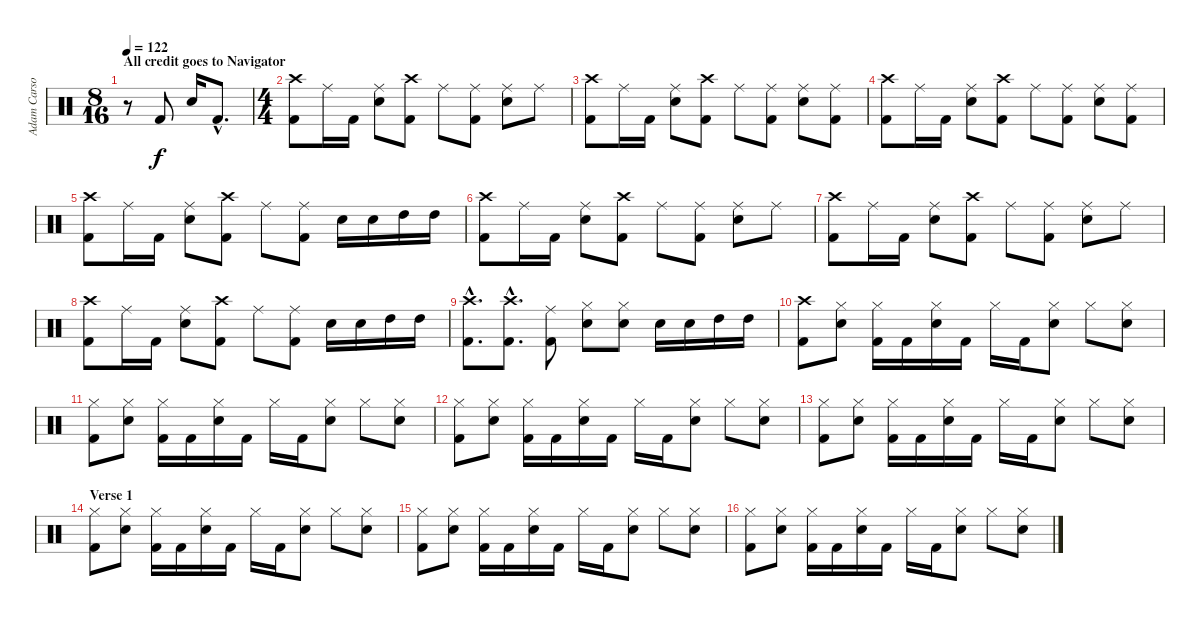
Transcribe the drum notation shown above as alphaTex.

\track ("Adam Carson" "Adam Carso") {instrument percussion}
\staff {score}
\articulation defaults
\ts (8 16)
\section ("" "All credit goes to Navigator")
\tempo 122
\clef neutral
\ks c
r.8{dy f} "Kick (hit) 2".8 "Electric Snare (hit)".16 "Kick (hit) 2"{hac}.8{d} |
\ts (4 4)
("Crash high (hit)" "Kick (hit) 2").8 "Ride (middle)".16 "Kick (hit) 2".16 ("Ride (middle)" "Electric Snare (hit)").8 ("Crash high (hit)" "Kick (hit) 2").8 "Ride (middle)".8 ("Ride (middle)" "Kick (hit) 2").8 ("Ride (middle)" "Electric Snare (hit)").8 "Ride (middle)".8 |
("Crash high (hit)" "Kick (hit) 2").8 "Ride (middle)".16 "Kick (hit) 2".16 ("Ride (middle)" "Electric Snare (hit)").8 ("Crash high (hit)" "Kick (hit) 2").8 "Ride (middle)".8 ("Ride (middle)" "Kick (hit) 2").8 ("Ride (middle)" "Electric Snare (hit)").8 ("Ride (middle)" "Kick (hit) 2").8 |
("Crash high (hit)" "Kick (hit) 2").8 "Ride (middle)".16 "Kick (hit) 2".16 ("Ride (middle)" "Electric Snare (hit)").8 ("Crash high (hit)" "Kick (hit) 2").8 "Ride (middle)".8 ("Ride (middle)" "Kick (hit) 2").8 ("Ride (middle)" "Electric Snare (hit)").8 ("Ride (middle)" "Kick (hit) 2").8 |
("Crash high (hit)" "Kick (hit) 2").8 "Ride (middle)".16 "Kick (hit) 2".16 ("Ride (middle)" "Electric Snare (hit)").8 ("Crash high (hit)" "Kick (hit) 2").8 "Ride (middle)".8 ("Ride (middle)" "Kick (hit) 2").8 "Electric Snare (hit)".16 "Electric Snare (hit)".16 "High Tom (hit)".16 "High Tom (hit)".16 |
("Crash high (hit)" "Kick (hit) 2").8 "Ride (middle)".16 "Kick (hit) 2".16 ("Ride (middle)" "Electric Snare (hit)").8 ("Crash high (hit)" "Kick (hit) 2").8 "Ride (middle)".8 ("Ride (middle)" "Kick (hit) 2").8 ("Ride (middle)" "Electric Snare (hit)").8 "Ride (middle)".8 |
("Crash high (hit)" "Kick (hit) 2").8 "Ride (middle)".16 "Kick (hit) 2".16 ("Ride (middle)" "Electric Snare (hit)").8 ("Crash high (hit)" "Kick (hit) 2").8 "Ride (middle)".8 ("Ride (middle)" "Kick (hit) 2").8 ("Ride (middle)" "Electric Snare (hit)").8 "Ride (middle)".8 |
("Crash high (hit)" "Kick (hit) 2").8 "Ride (middle)".16 "Kick (hit) 2".16 ("Ride (middle)" "Electric Snare (hit)").8 ("Crash high (hit)" "Kick (hit) 2").8 "Ride (middle)".8 ("Ride (middle)" "Kick (hit) 2").8 "Electric Snare (hit)".16 "Electric Snare (hit)".16 "High Tom (hit)".16 "High Tom (hit)".16 |
("Crash high (hit)"{hac} "Kick (hit) 2"{hac}).8{d} ("Crash high (hit)"{hac} "Kick (hit) 2"{hac}).8{d} ("Ride (middle)" "Kick (hit) 2").8 ("Hi-Hat (closed)" "Electric Snare (hit)").8 ("Hi-Hat (closed)" "Electric Snare (hit)").8 "Electric Snare (hit)".16 "Electric Snare (hit)".16 "High Tom (hit)".16 "High Tom (hit)".16 |
("Crash high (hit)" "Kick (hit) 2").8 ("Hi-Hat (closed)" "Electric Snare (hit)").8 ("Hi-Hat (closed)" "Kick (hit) 2").16 "Kick (hit) 2".16 ("Hi-Hat (closed)" "Electric Snare (hit)").16 "Kick (hit) 2".16 "Hi-Hat (closed)".16 "Kick (hit) 2".16 ("Hi-Hat (closed)" "Electric Snare (hit)").8 "Hi-Hat (closed)".8 ("Hi-Hat (closed)" "Electric Snare (hit)").8 |
("Hi-Hat (closed)" "Kick (hit) 2").8 ("Hi-Hat (closed)" "Electric Snare (hit)").8 ("Hi-Hat (closed)" "Kick (hit) 2").16 "Kick (hit) 2".16 ("Hi-Hat (closed)" "Electric Snare (hit)").16 "Kick (hit) 2".16 "Hi-Hat (closed)".16 "Kick (hit) 2".16 ("Hi-Hat (closed)" "Electric Snare (hit)").8 "Hi-Hat (closed)".8 ("Hi-Hat (closed)" "Electric Snare (hit)").8 |
("Hi-Hat (closed)" "Kick (hit) 2").8 ("Hi-Hat (closed)" "Electric Snare (hit)").8 ("Hi-Hat (closed)" "Kick (hit) 2").16 "Kick (hit) 2".16 ("Hi-Hat (closed)" "Electric Snare (hit)").16 "Kick (hit) 2".16 "Hi-Hat (closed)".16 "Kick (hit) 2".16 ("Hi-Hat (closed)" "Electric Snare (hit)").8 "Hi-Hat (closed)".8 ("Hi-Hat (closed)" "Electric Snare (hit)").8 |
("Hi-Hat (closed)" "Kick (hit) 2").8 ("Hi-Hat (closed)" "Electric Snare (hit)").8 ("Hi-Hat (closed)" "Kick (hit) 2").16 "Kick (hit) 2".16 ("Hi-Hat (closed)" "Electric Snare (hit)").16 "Kick (hit) 2".16 "Hi-Hat (closed)".16 "Kick (hit) 2".16 ("Hi-Hat (closed)" "Electric Snare (hit)").8 "Hi-Hat (closed)".8 ("Hi-Hat (closed)" "Electric Snare (hit)").8 |
\section ("" "Verse 1")
("Hi-Hat (closed)" "Kick (hit) 2").8 ("Hi-Hat (closed)" "Electric Snare (hit)").8 ("Hi-Hat (closed)" "Kick (hit) 2").16 "Kick (hit) 2".16 ("Hi-Hat (closed)" "Electric Snare (hit)").16 "Kick (hit) 2".16 "Hi-Hat (closed)".16 "Kick (hit) 2".16 ("Hi-Hat (closed)" "Electric Snare (hit)").8 "Hi-Hat (closed)".8 ("Hi-Hat (closed)" "Electric Snare (hit)").8 |
("Hi-Hat (closed)" "Kick (hit) 2").8 ("Hi-Hat (closed)" "Electric Snare (hit)").8 ("Hi-Hat (closed)" "Kick (hit) 2").16 "Kick (hit) 2".16 ("Hi-Hat (closed)" "Electric Snare (hit)").16 "Kick (hit) 2".16 "Hi-Hat (closed)".16 "Kick (hit) 2".16 ("Hi-Hat (closed)" "Electric Snare (hit)").8 "Hi-Hat (closed)".8 ("Hi-Hat (closed)" "Electric Snare (hit)").8 |
("Hi-Hat (closed)" "Kick (hit) 2").8 ("Hi-Hat (closed)" "Electric Snare (hit)").8 ("Hi-Hat (closed)" "Kick (hit) 2").16 "Kick (hit) 2".16 ("Hi-Hat (closed)" "Electric Snare (hit)").16 "Kick (hit) 2".16 "Hi-Hat (closed)".16 "Kick (hit) 2".16 ("Hi-Hat (closed)" "Electric Snare (hit)").8 "Hi-Hat (closed)".8 ("Hi-Hat (closed)" "Electric Snare (hit)").8
